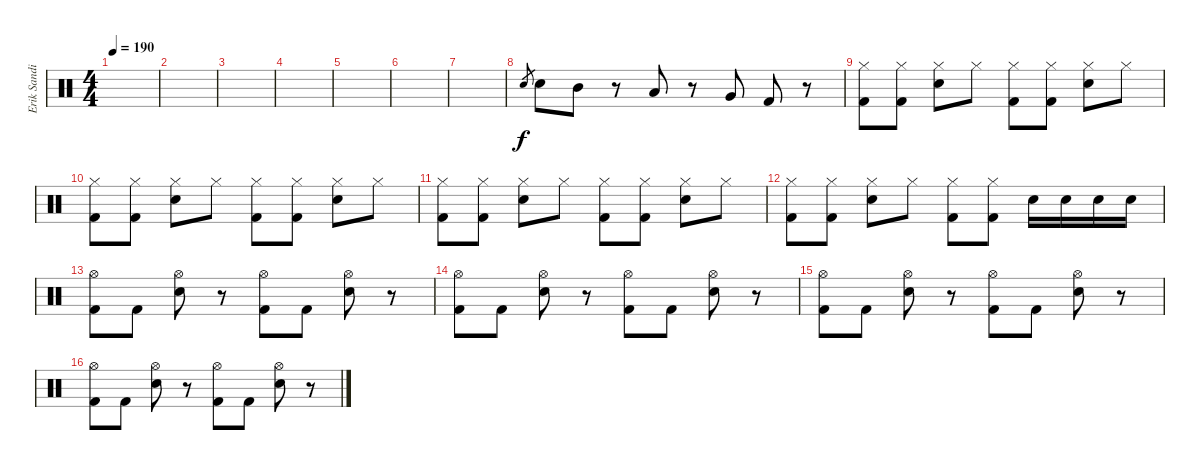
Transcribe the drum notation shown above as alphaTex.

\track ("Erik Sandin" "Erik Sandi") {instrument percussion}
\staff {score}
\articulation defaults
\ts (4 4)
\tempo 190
\clef neutral
\ks c
|
|
|
|
|
|
|
"Snare (hit) 2".8{gr} "Snare (hit) 2".8 "Mid Tom (hit)".8 r.8 "Low Tom (hit)".8 r.8 "Very Low Tom (hit)".8 "Kick (hit) 2".8 r.8 |
("Hi-Hat (closed)" "Kick (hit) 2").8 ("Hi-Hat (closed)" "Kick (hit) 2").8 ("Hi-Hat (closed)" "Snare (hit) 2").8 "Hi-Hat (closed)".8 ("Hi-Hat (closed)" "Kick (hit) 2").8 ("Hi-Hat (closed)" "Kick (hit) 2").8 ("Hi-Hat (closed)" "Snare (hit) 2").8 "Hi-Hat (closed)".8 |
("Hi-Hat (closed)" "Kick (hit) 2").8 ("Hi-Hat (closed)" "Kick (hit) 2").8 ("Hi-Hat (closed)" "Snare (hit) 2").8 "Hi-Hat (closed)".8 ("Hi-Hat (closed)" "Kick (hit) 2").8 ("Hi-Hat (closed)" "Kick (hit) 2").8 ("Hi-Hat (closed)" "Snare (hit) 2").8 "Hi-Hat (closed)".8 |
("Hi-Hat (closed)" "Kick (hit) 2").8 ("Hi-Hat (closed)" "Kick (hit) 2").8 ("Hi-Hat (closed)" "Snare (hit) 2").8 "Hi-Hat (closed)".8 ("Hi-Hat (closed)" "Kick (hit) 2").8 ("Hi-Hat (closed)" "Kick (hit) 2").8 ("Hi-Hat (closed)" "Snare (hit) 2").8 "Hi-Hat (closed)".8 |
("Hi-Hat (closed)" "Kick (hit) 2").8 ("Hi-Hat (closed)" "Kick (hit) 2").8 ("Hi-Hat (closed)" "Snare (hit) 2").8 "Hi-Hat (closed)".8 ("Hi-Hat (closed)" "Kick (hit) 2").8 ("Hi-Hat (closed)" "Kick (hit) 2").8 "Snare (hit) 2".16 "Snare (hit) 2".16 "Snare (hit) 2".16 "Snare (hit) 2".16 |
("Hi-Hat (open)" "Kick (hit) 2").8 "Kick (hit) 2".8 ("Hi-Hat (open)" "Snare (hit) 2").8 r.8 ("Hi-Hat (open)" "Kick (hit) 2").8 "Kick (hit) 2".8 ("Hi-Hat (open)" "Snare (hit) 2").8 r.8 |
("Hi-Hat (open)" "Kick (hit) 2").8 "Kick (hit) 2".8 ("Hi-Hat (open)" "Snare (hit) 2").8 r.8 ("Hi-Hat (open)" "Kick (hit) 2").8 "Kick (hit) 2".8 ("Hi-Hat (open)" "Snare (hit) 2").8 r.8 |
("Hi-Hat (open)" "Kick (hit) 2").8 "Kick (hit) 2".8 ("Hi-Hat (open)" "Snare (hit) 2").8 r.8 ("Hi-Hat (open)" "Kick (hit) 2").8 "Kick (hit) 2".8 ("Hi-Hat (open)" "Snare (hit) 2").8 r.8 |
("Hi-Hat (open)" "Kick (hit) 2").8 "Kick (hit) 2".8 ("Hi-Hat (open)" "Snare (hit) 2").8 r.8 ("Hi-Hat (open)" "Kick (hit) 2").8 "Kick (hit) 2".8 ("Hi-Hat (open)" "Snare (hit) 2").8 r.8
